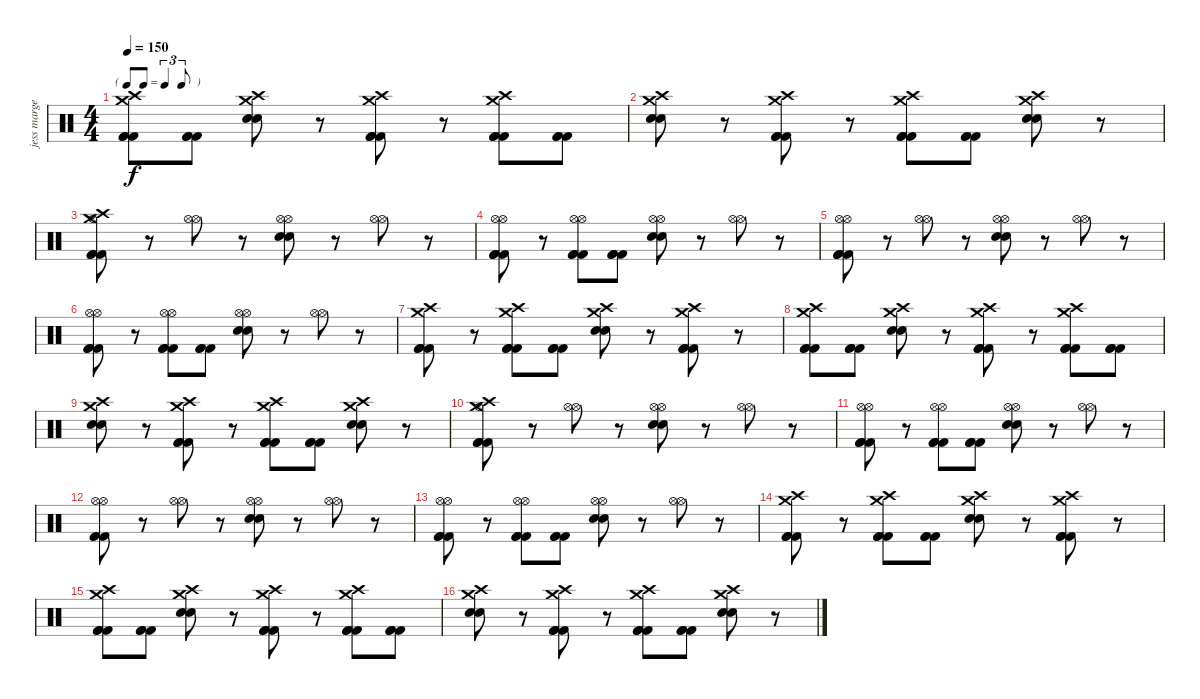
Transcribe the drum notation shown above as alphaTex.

\track ("jess margera" "jess marge") {instrument percussion}
\staff {score}
\articulation defaults
\ts (4 4)
\tf triplet8th
\tempo 150
\clef neutral
\ks c
("Crash high (hit)" "Crash medium (hit)" "Kick (hit) 2" "Kick (hit) 2" "Kick (hit) 2").8{dy f} ("Kick (hit) 2" "Kick (hit) 2" "Kick (hit) 2").8 ("Crash high (hit)" "Crash medium (hit)" "Electric Snare (hit)" "Electric Snare (hit)").8 r.8 ("Crash high (hit)" "Crash medium (hit)" "Kick (hit) 2" "Kick (hit) 2" "Kick (hit) 2").8 r.8 ("Crash high (hit)" "Crash medium (hit)" "Kick (hit) 2" "Kick (hit) 2" "Kick (hit) 2").8 ("Kick (hit) 2" "Kick (hit) 2" "Kick (hit) 2").8 |
("Crash high (hit)" "Crash medium (hit)" "Electric Snare (hit)" "Electric Snare (hit)").8 r.8 ("Crash high (hit)" "Crash medium (hit)" "Kick (hit) 2" "Kick (hit) 2" "Kick (hit) 2").8 r.8 ("Crash high (hit)" "Crash medium (hit)" "Kick (hit) 2" "Kick (hit) 2" "Kick (hit) 2").8 ("Kick (hit) 2" "Kick (hit) 2" "Kick (hit) 2").8 ("Crash high (hit)" "Crash medium (hit)" "Electric Snare (hit)" "Electric Snare (hit)").8 r.8 |
("Hi-Hat (open)" "Crash high (hit)" "Crash medium (hit)" "Kick (hit) 2" "Kick (hit) 2" "Kick (hit) 2").8 r.8 ("Hi-Hat (open)" "Hi-Hat (open)").8 r.8 ("Hi-Hat (open)" "Hi-Hat (open)" "Electric Snare (hit)" "Electric Snare (hit)").8 r.8 ("Hi-Hat (open)" "Hi-Hat (open)").8 r.8 |
("Hi-Hat (open)" "Hi-Hat (open)" "Kick (hit) 2" "Kick (hit) 2" "Kick (hit) 2").8 r.8 ("Hi-Hat (open)" "Hi-Hat (open)" "Kick (hit) 2" "Kick (hit) 2" "Kick (hit) 2").8 ("Kick (hit) 2" "Kick (hit) 2" "Kick (hit) 2").8 ("Hi-Hat (open)" "Hi-Hat (open)" "Electric Snare (hit)" "Electric Snare (hit)").8 r.8 ("Hi-Hat (open)" "Hi-Hat (open)").8 r.8 |
("Hi-Hat (open)" "Hi-Hat (open)" "Kick (hit) 2" "Kick (hit) 2" "Kick (hit) 2").8 r.8 ("Hi-Hat (open)" "Hi-Hat (open)").8 r.8 ("Hi-Hat (open)" "Hi-Hat (open)" "Electric Snare (hit)" "Electric Snare (hit)").8 r.8 ("Hi-Hat (open)" "Hi-Hat (open)").8 r.8 |
("Hi-Hat (open)" "Hi-Hat (open)" "Kick (hit) 2" "Kick (hit) 2" "Kick (hit) 2").8 r.8 ("Hi-Hat (open)" "Hi-Hat (open)" "Kick (hit) 2" "Kick (hit) 2" "Kick (hit) 2").8 ("Kick (hit) 2" "Kick (hit) 2" "Kick (hit) 2").8 ("Hi-Hat (open)" "Hi-Hat (open)" "Electric Snare (hit)" "Electric Snare (hit)").8 r.8 ("Hi-Hat (open)" "Hi-Hat (open)").8 r.8 |
("Crash high (hit)" "Crash medium (hit)" "Kick (hit) 2" "Kick (hit) 2" "Kick (hit) 2").8 r.8 ("Crash high (hit)" "Crash medium (hit)" "Kick (hit) 2" "Kick (hit) 2" "Kick (hit) 2").8 ("Kick (hit) 2" "Kick (hit) 2" "Kick (hit) 2").8 ("Crash high (hit)" "Crash medium (hit)" "Electric Snare (hit)" "Electric Snare (hit)").8 r.8 ("Crash high (hit)" "Crash medium (hit)" "Kick (hit) 2" "Kick (hit) 2" "Kick (hit) 2").8 r.8 |
("Crash high (hit)" "Crash medium (hit)" "Kick (hit) 2" "Kick (hit) 2" "Kick (hit) 2").8 ("Kick (hit) 2" "Kick (hit) 2" "Kick (hit) 2").8 ("Crash high (hit)" "Crash medium (hit)" "Electric Snare (hit)" "Electric Snare (hit)").8 r.8 ("Crash high (hit)" "Crash medium (hit)" "Kick (hit) 2" "Kick (hit) 2" "Kick (hit) 2").8 r.8 ("Crash high (hit)" "Crash medium (hit)" "Kick (hit) 2" "Kick (hit) 2" "Kick (hit) 2").8 ("Kick (hit) 2" "Kick (hit) 2" "Kick (hit) 2").8 |
("Crash high (hit)" "Crash medium (hit)" "Electric Snare (hit)" "Electric Snare (hit)").8 r.8 ("Crash high (hit)" "Crash medium (hit)" "Kick (hit) 2" "Kick (hit) 2" "Kick (hit) 2").8 r.8 ("Crash high (hit)" "Crash medium (hit)" "Kick (hit) 2" "Kick (hit) 2" "Kick (hit) 2").8 ("Kick (hit) 2" "Kick (hit) 2" "Kick (hit) 2").8 ("Crash high (hit)" "Crash medium (hit)" "Electric Snare (hit)" "Electric Snare (hit)").8 r.8 |
("Hi-Hat (open)" "Crash high (hit)" "Crash medium (hit)" "Kick (hit) 2" "Kick (hit) 2" "Kick (hit) 2").8 r.8 ("Hi-Hat (open)" "Hi-Hat (open)").8 r.8 ("Hi-Hat (open)" "Hi-Hat (open)" "Electric Snare (hit)" "Electric Snare (hit)").8 r.8 ("Hi-Hat (open)" "Hi-Hat (open)").8 r.8 |
("Hi-Hat (open)" "Hi-Hat (open)" "Kick (hit) 2" "Kick (hit) 2" "Kick (hit) 2").8 r.8 ("Hi-Hat (open)" "Hi-Hat (open)" "Kick (hit) 2" "Kick (hit) 2" "Kick (hit) 2").8 ("Kick (hit) 2" "Kick (hit) 2" "Kick (hit) 2").8 ("Hi-Hat (open)" "Hi-Hat (open)" "Electric Snare (hit)" "Electric Snare (hit)").8 r.8 ("Hi-Hat (open)" "Hi-Hat (open)").8 r.8 |
("Hi-Hat (open)" "Hi-Hat (open)" "Kick (hit) 2" "Kick (hit) 2" "Kick (hit) 2").8 r.8 ("Hi-Hat (open)" "Hi-Hat (open)").8 r.8 ("Hi-Hat (open)" "Hi-Hat (open)" "Electric Snare (hit)" "Electric Snare (hit)").8 r.8 ("Hi-Hat (open)" "Hi-Hat (open)").8 r.8 |
("Hi-Hat (open)" "Hi-Hat (open)" "Kick (hit) 2" "Kick (hit) 2" "Kick (hit) 2").8 r.8 ("Hi-Hat (open)" "Hi-Hat (open)" "Kick (hit) 2" "Kick (hit) 2" "Kick (hit) 2").8 ("Kick (hit) 2" "Kick (hit) 2" "Kick (hit) 2").8 ("Hi-Hat (open)" "Hi-Hat (open)" "Electric Snare (hit)" "Electric Snare (hit)").8 r.8 ("Hi-Hat (open)" "Hi-Hat (open)").8 r.8 |
("Crash high (hit)" "Crash medium (hit)" "Kick (hit) 2" "Kick (hit) 2" "Kick (hit) 2").8 r.8 ("Crash high (hit)" "Crash medium (hit)" "Kick (hit) 2" "Kick (hit) 2" "Kick (hit) 2").8 ("Kick (hit) 2" "Kick (hit) 2" "Kick (hit) 2").8 ("Crash high (hit)" "Crash medium (hit)" "Electric Snare (hit)" "Electric Snare (hit)").8 r.8 ("Crash high (hit)" "Crash medium (hit)" "Kick (hit) 2" "Kick (hit) 2" "Kick (hit) 2").8 r.8 |
("Crash high (hit)" "Crash medium (hit)" "Kick (hit) 2" "Kick (hit) 2" "Kick (hit) 2").8 ("Kick (hit) 2" "Kick (hit) 2" "Kick (hit) 2").8 ("Crash high (hit)" "Crash medium (hit)" "Electric Snare (hit)" "Electric Snare (hit)").8 r.8 ("Crash high (hit)" "Crash medium (hit)" "Kick (hit) 2" "Kick (hit) 2" "Kick (hit) 2").8 r.8 ("Crash high (hit)" "Crash medium (hit)" "Kick (hit) 2" "Kick (hit) 2" "Kick (hit) 2").8 ("Kick (hit) 2" "Kick (hit) 2" "Kick (hit) 2").8 |
("Crash high (hit)" "Crash medium (hit)" "Electric Snare (hit)" "Electric Snare (hit)").8 r.8 ("Crash high (hit)" "Crash medium (hit)" "Kick (hit) 2" "Kick (hit) 2" "Kick (hit) 2").8 r.8 ("Crash high (hit)" "Crash medium (hit)" "Kick (hit) 2" "Kick (hit) 2" "Kick (hit) 2").8 ("Kick (hit) 2" "Kick (hit) 2" "Kick (hit) 2").8 ("Crash high (hit)" "Crash medium (hit)" "Electric Snare (hit)" "Electric Snare (hit)").8 r.8
